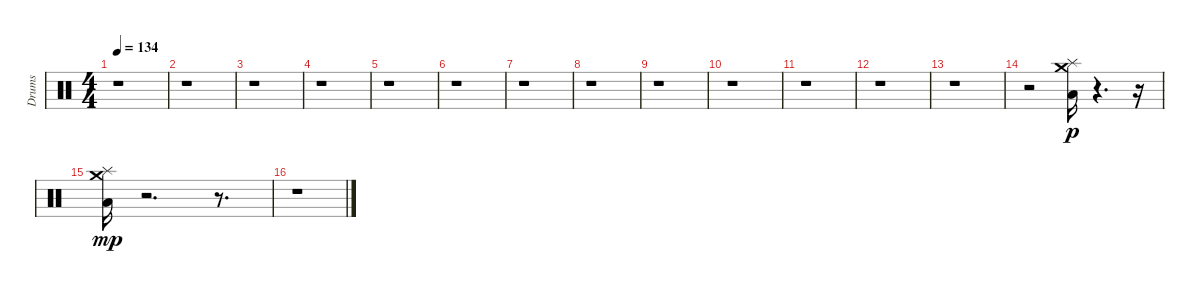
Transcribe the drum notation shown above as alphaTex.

\track ("Drums" "Drums") {instrument percussion}
\staff {score}
\articulation defaults
\ts (4 4)
\tempo 134
\clef neutral
\ks c
r.1{dy mp} |
r.1 |
r.1 |
r.1 |
r.1 |
r.1 |
r.1 |
r.1 |
r.1 |
r.1 |
r.1 |
r.1 |
r.1 |
r.2 ("Crash medium (hit)" "Splash (hit)" "Low Floor Tom (hit)").16{dy p} r.4{d} r.16 |
("Crash medium (hit)" "Splash (hit)" "Low Floor Tom (hit)").16{dy mp} r.2{d} r.8{d} |
r.1
